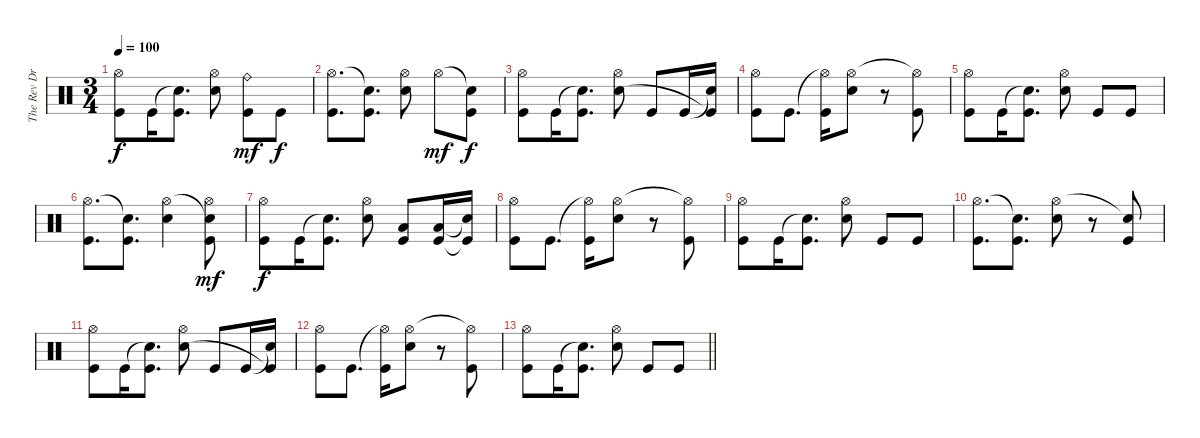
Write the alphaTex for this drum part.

\track ("The Rev Drums" "The Rev Dr") {instrument percussion}
\staff {score}
\articulation defaults
\ts (3 4)
\tempo 100
\clef neutral
\ks c
("Hi-Hat (open)" "Kick (hit)").8{dy f} "Kick (hit)".16 ("Snare (hit)"{t} "Kick (hit)").8{d} ("Hi-Hat (open)" "Electric Snare (hit)").8 ("Ride (bell)" "Kick (hit)").8{dy mf} "Kick (hit)".8{dy f} |
("Hi-Hat (open)" "Kick (hit)").8{d} ("Snare (hit)"{t} "Kick (hit)").8{d} ("Hi-Hat (open)" "Electric Snare (hit)").8 "Hi-Hat (open)".8{dy mf} ("Snare (hit)"{t} "Kick (hit)").8{dy f} |
("Hi-Hat (open)" "Kick (hit)").8 "Kick (hit)".16 ("Snare (hit)"{t} "Kick (hit)").8{d} ("Hi-Hat (open)" "Electric Snare (hit)").8 "Kick (hit)".8 "Kick (hit)".16 ("Snare (hit)"{t} "Kick (hit)"{t}).16 |
("Hi-Hat (open)" "Kick (hit)").8 "Kick (hit)".8{d} ("Hi-Hat (open)"{t} "Kick (hit)").16 ("Hi-Hat (open)" "Electric Snare (hit)").8 r.8 ("Hi-Hat (open)"{t} "Kick (hit)").8 |
("Hi-Hat (open)" "Kick (hit)").8 "Kick (hit)".16 ("Snare (hit)"{t} "Kick (hit)").8{d} ("Hi-Hat (open)" "Electric Snare (hit)").8 "Kick (hit)".8 "Kick (hit)".8 |
("Hi-Hat (open)" "Kick (hit)").8{d} ("Snare (hit)"{t} "Kick (hit)").8{d} ("Hi-Hat (open)" "Electric Snare (hit)").4 ("Snare (hit)"{t} "Hi-Hat (open)" "Kick (hit)").8{dy mf} |
("Hi-Hat (open)" "Kick (hit)").8{dy f} "Kick (hit)".16 ("Snare (hit)"{t} "Kick (hit)").8{d} ("Hi-Hat (open)" "Electric Snare (hit)").8 ("Low Floor Tom (hit)" "Kick (hit)").8 ("Low Floor Tom (hit)" "Kick (hit)").16 ("Snare (hit)"{t} "Kick (hit)"{t}).16 |
("Hi-Hat (open)" "Kick (hit)").8 "Kick (hit)".8{d} ("Hi-Hat (open)"{t} "Kick (hit)").16 ("Hi-Hat (open)" "Electric Snare (hit)").8 r.8 ("Hi-Hat (open)"{t} "Kick (hit)").8 |
("Hi-Hat (open)" "Kick (hit)").8 "Kick (hit)".16 ("Snare (hit)"{t} "Kick (hit)").8{d} ("Hi-Hat (open)" "Electric Snare (hit)").8 "Kick (hit)".8 "Kick (hit)".8 |
("Hi-Hat (open)" "Kick (hit)").8{d} ("Snare (hit)"{t} "Kick (hit)").8{d} ("Hi-Hat (open)" "Electric Snare (hit)").8 r.8 ("Snare (hit)"{t} "Kick (hit)").8 |
("Hi-Hat (open)" "Kick (hit)").8 "Kick (hit)".16 ("Snare (hit)"{t} "Kick (hit)").8{d} ("Hi-Hat (open)" "Electric Snare (hit)").8 "Kick (hit)".8 "Kick (hit)".16 ("Snare (hit)"{t} "Kick (hit)"{t}).16 |
("Hi-Hat (open)" "Kick (hit)").8 "Kick (hit)".8{d} ("Hi-Hat (open)"{t} "Kick (hit)").16 ("Hi-Hat (open)" "Electric Snare (hit)").8 r.8 ("Hi-Hat (open)"{t} "Kick (hit)").8 |
\barLineRight lightlight
("Hi-Hat (open)" "Kick (hit)").8 "Kick (hit)".16 ("Snare (hit)"{t} "Kick (hit)").8{d} ("Hi-Hat (open)" "Electric Snare (hit)").8 "Kick (hit)".8 "Kick (hit)".8
